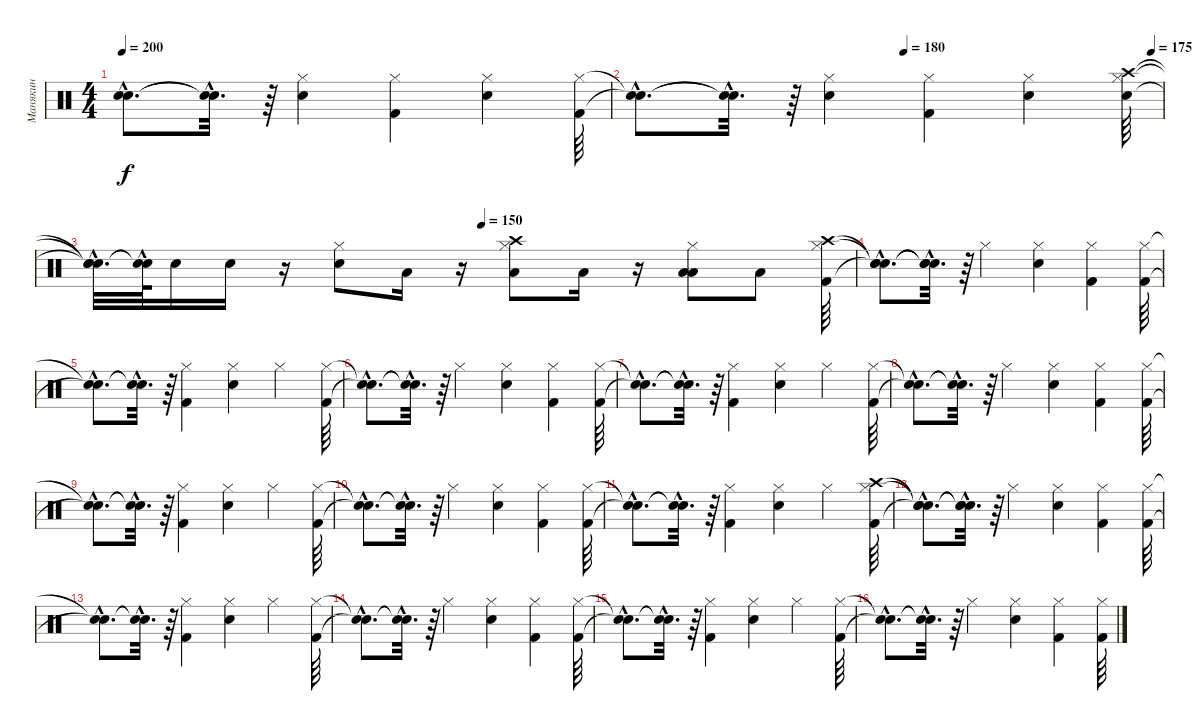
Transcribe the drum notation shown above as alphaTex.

\track ("Манякин" "Манякин") {instrument percussion}
\staff {score}
\articulation defaults
\ts (4 4)
\tempo 200
\clef neutral
\ks c
("Snare (hit)"{hac t} "Snare (hit)"{hac t}).8{d dy f} ("Snare (hit)"{hac t} "Snare (hit)"{hac t}).32{d} r.64 ("Hi-Hat (closed)" "Snare (hit) 2").4 ("Hi-Hat (closed)" "Kick (hit) 2").4 ("Snare (hit) 2" "Hi-Hat (closed)").4 ("Hi-Hat (closed)" "Kick (hit) 2").64 |
\tempo (180 0.5104166666666666)
\tempo (175 0.9791666666666666)
("Snare (hit)"{hac t} "Snare (hit)"{hac t}).8{d} ("Snare (hit)"{hac t} "Snare (hit)"{hac t}).32{d} r.64 ("Hi-Hat (closed)" "Snare (hit) 2").4 ("Hi-Hat (closed)" "Kick (hit) 2").4 ("Hi-Hat (closed)" "Snare (hit) 2").4 ("Snare (hit) 2" "Crash high (hit)" "Hi-Hat (closed)").64 |
\tempo (150 0.5104166666666666)
("Snare (hit)"{hac t} "Snare (hit)"{hac t} "Snare (hit)"{hac t}).32{d} ("Snare (hit)"{hac t} "Snare (hit)"{hac t}).64 "Snare (hit) 2".16 "Snare (hit) 2".16 r.16 ("Snare (hit) 2" "Hi-Hat (closed)").8 "Low Tom (hit)".16 r.16 ("Low Tom (hit)" "Crash high (hit)" "Hi-Hat (closed)").8 "Low Tom (hit)".16 r.16 ("Low Tom (hit)" "Hi-Hat (closed)" "Low Floor Tom (hit)").8 "Low Floor Tom (hit)".8 ("Hi-Hat (closed)" "Crash high (hit)" "Kick (hit) 2").64 |
("Snare (hit)"{hac t} "Snare (hit)"{hac t} "Snare (hit)"{hac t}).8{d} ("Snare (hit)"{hac t} "Snare (hit)"{hac t} "Snare (hit)"{hac t}).32{d} r.64 "Hi-Hat (closed)".4 ("Hi-Hat (closed)" "Snare (hit) 2").4 ("Hi-Hat (closed)" "Kick (hit) 2").4 ("Hi-Hat (closed)" "Kick (hit) 2").64 |
("Snare (hit)"{hac t} "Snare (hit)"{hac t}).8{d} ("Snare (hit)"{hac t} "Snare (hit)"{hac t}).32{d} r.64 ("Hi-Hat (closed)" "Kick (hit) 2").4 ("Hi-Hat (closed)" "Snare (hit) 2").4 "Hi-Hat (closed)".4 ("Hi-Hat (closed)" "Kick (hit) 2").64 |
("Snare (hit)"{hac t} "Snare (hit)"{hac t}).8{d} ("Snare (hit)"{hac t} "Snare (hit)"{hac t}).32{d} r.64 "Hi-Hat (closed)".4 ("Hi-Hat (closed)" "Snare (hit) 2").4 ("Hi-Hat (closed)" "Kick (hit) 2").4 ("Hi-Hat (closed)" "Kick (hit) 2").64 |
("Snare (hit)"{hac t} "Snare (hit)"{hac t}).8{d} ("Snare (hit)"{hac t} "Snare (hit)"{hac t}).32{d} r.64 ("Hi-Hat (closed)" "Kick (hit) 2").4 ("Hi-Hat (closed)" "Snare (hit) 2").4 "Hi-Hat (closed)".4 ("Hi-Hat (closed)" "Kick (hit) 2").64 |
("Snare (hit)"{hac t} "Snare (hit)"{hac t}).8{d} ("Snare (hit)"{hac t} "Snare (hit)"{hac t}).32{d} r.64 "Hi-Hat (closed)".4 ("Hi-Hat (closed)" "Snare (hit) 2").4 ("Hi-Hat (closed)" "Kick (hit) 2").4 ("Hi-Hat (closed)" "Kick (hit) 2").64 |
("Snare (hit)"{hac t} "Snare (hit)"{hac t}).8{d} ("Snare (hit)"{hac t} "Snare (hit)"{hac t}).32{d} r.64 ("Hi-Hat (closed)" "Kick (hit) 2").4 ("Hi-Hat (closed)" "Snare (hit) 2").4 "Hi-Hat (closed)".4 ("Hi-Hat (closed)" "Kick (hit) 2").64 |
("Snare (hit)"{hac t} "Snare (hit)"{hac t}).8{d} ("Snare (hit)"{hac t} "Snare (hit)"{hac t}).32{d} r.64 "Hi-Hat (closed)".4 ("Hi-Hat (closed)" "Snare (hit) 2").4 ("Hi-Hat (closed)" "Kick (hit) 2").4 ("Hi-Hat (closed)" "Kick (hit) 2").64 |
("Snare (hit)"{hac t} "Snare (hit)"{hac t}).8{d} ("Snare (hit)"{hac t} "Snare (hit)"{hac t}).32{d} r.64 ("Hi-Hat (closed)" "Kick (hit) 2").4 ("Hi-Hat (closed)" "Snare (hit) 2").4 "Hi-Hat (closed)".4 ("Hi-Hat (closed)" "Crash high (hit)" "Kick (hit) 2").64 |
("Snare (hit)"{hac t} "Snare (hit)"{hac t} "Snare (hit)"{hac t}).8{d} ("Snare (hit)"{hac t} "Snare (hit)"{hac t} "Snare (hit)"{hac t}).32{d} r.64 "Hi-Hat (closed)".4 ("Hi-Hat (closed)" "Snare (hit) 2").4 ("Hi-Hat (closed)" "Kick (hit) 2").4 ("Hi-Hat (closed)" "Kick (hit) 2").64 |
("Snare (hit)"{hac t} "Snare (hit)"{hac t}).8{d} ("Snare (hit)"{hac t} "Snare (hit)"{hac t}).32{d} r.64 ("Hi-Hat (closed)" "Kick (hit) 2").4 ("Hi-Hat (closed)" "Snare (hit) 2").4 "Hi-Hat (closed)".4 ("Hi-Hat (closed)" "Kick (hit) 2").64 |
("Snare (hit)"{hac t} "Snare (hit)"{hac t}).8{d} ("Snare (hit)"{hac t} "Snare (hit)"{hac t}).32{d} r.64 "Hi-Hat (closed)".4 ("Hi-Hat (closed)" "Snare (hit) 2").4 ("Hi-Hat (closed)" "Kick (hit) 2").4 ("Hi-Hat (closed)" "Kick (hit) 2").64 |
("Snare (hit)"{hac t} "Snare (hit)"{hac t}).8{d} ("Snare (hit)"{hac t} "Snare (hit)"{hac t}).32{d} r.64 ("Hi-Hat (closed)" "Kick (hit) 2").4 ("Hi-Hat (closed)" "Snare (hit) 2").4 "Hi-Hat (closed)".4 ("Hi-Hat (closed)" "Kick (hit) 2").64 |
("Snare (hit)"{hac t} "Snare (hit)"{hac t}).8{d} ("Snare (hit)"{hac t} "Snare (hit)"{hac t}).32{d} r.64 "Hi-Hat (closed)".4 ("Hi-Hat (closed)" "Snare (hit) 2").4 ("Hi-Hat (closed)" "Kick (hit) 2").4 ("Hi-Hat (closed)" "Kick (hit) 2").64
